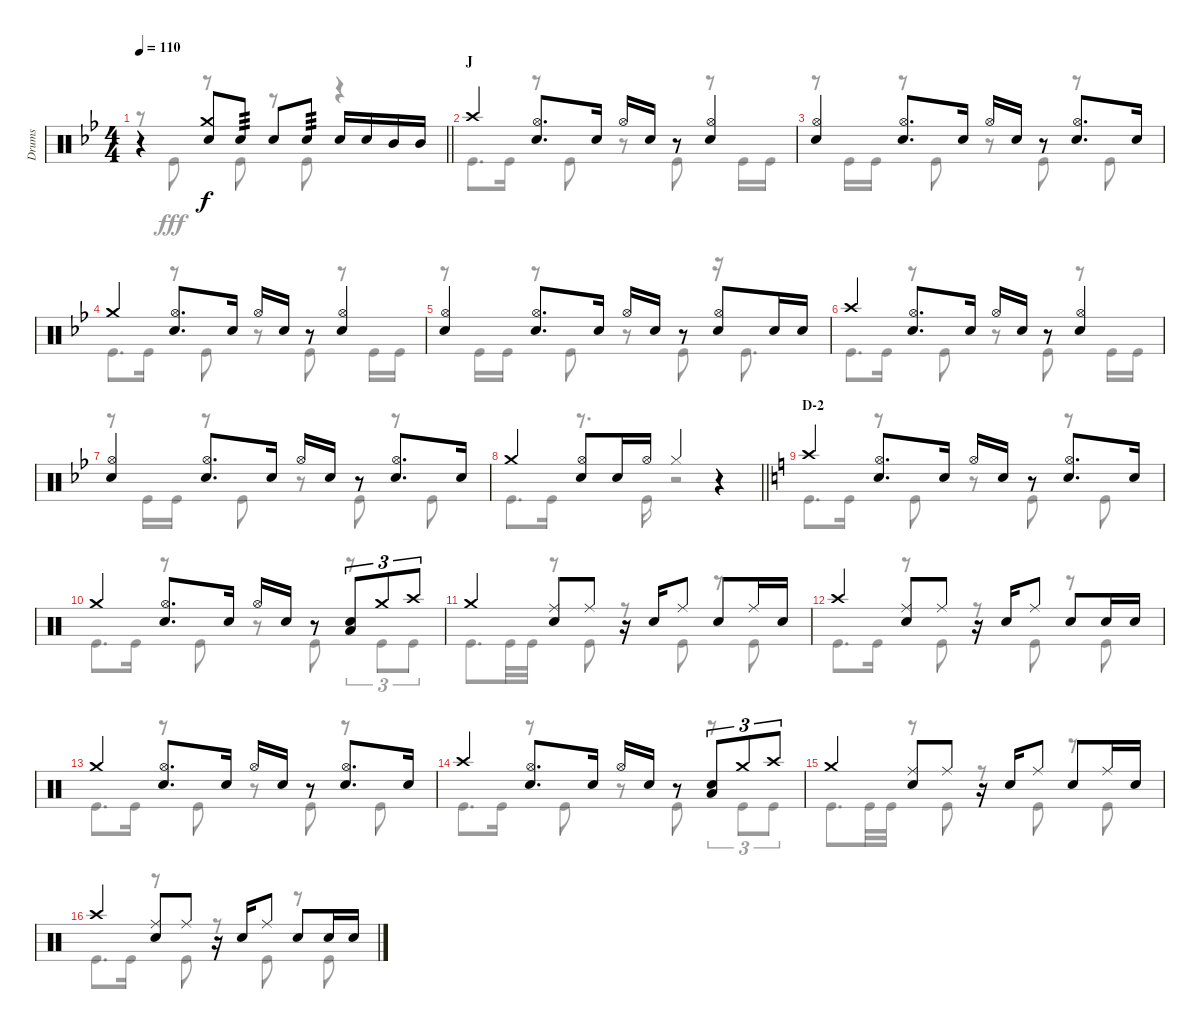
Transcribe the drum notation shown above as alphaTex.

\track ("Drums" "Drums") {instrument percussion}
\staff {score}
\articulation defaults
\voice
\ts (4 4)
\tempo 110
\clef neutral
\barLineRight lightlight
\ks bb
r.4{dy f} ("Crash medium (hit)" "Snare (hit) 2").8 "Snare (hit) 2".8{tp 3} "Snare (hit) 2".8 "Snare (hit) 2".8{tp 3} "Snare (hit) 2".16 "Snare (hit) 2".16 "Mid Tom (hit)".16 "Mid Tom (hit)".16 |
\section ("" "J")
"Crash high (hit)".4 ("Hi-Hat (open)" "Snare (hit) 2").8{d} "Snare (hit) 2".16 "Hi-Hat (open)".16 "Snare (hit) 2".16 r.8 ("Hi-Hat (open)" "Snare (hit) 2").4 |
("Hi-Hat (open)" "Snare (hit) 2").4 ("Hi-Hat (open)" "Snare (hit) 2").8{d} "Snare (hit) 2".16 "Hi-Hat (open)".16 "Snare (hit) 2".16 r.8 ("Hi-Hat (open)" "Snare (hit) 2").8{d} "Snare (hit) 2".16 |
"Crash medium (hit)".4 ("Hi-Hat (open)" "Snare (hit) 2").8{d} "Snare (hit) 2".16 "Hi-Hat (open)".16 "Snare (hit) 2".16 r.8 ("Hi-Hat (open)" "Snare (hit) 2").4 |
("Hi-Hat (open)" "Snare (hit) 2").4 ("Hi-Hat (open)" "Snare (hit) 2").8{d} "Snare (hit) 2".16 "Hi-Hat (open)".16 "Snare (hit) 2".16 r.8 ("Hi-Hat (open)" "Snare (hit) 2").8 "Snare (hit) 2".16 "Snare (hit) 2".16 |
"Crash high (hit)".4 ("Hi-Hat (open)" "Snare (hit) 2").8{d} "Snare (hit) 2".16 "Hi-Hat (open)".16 "Snare (hit) 2".16 r.8 ("Hi-Hat (open)" "Snare (hit) 2").4 |
("Hi-Hat (open)" "Snare (hit) 2").4 ("Hi-Hat (open)" "Snare (hit) 2").8{d} "Snare (hit) 2".16 "Hi-Hat (open)".16 "Snare (hit) 2".16 r.8 ("Hi-Hat (open)" "Snare (hit) 2").8{d} "Snare (hit) 2".16 |
\barLineRight lightlight "Crash medium (hit)".4
("Hi-Hat (open)" "Snare (hit) 2").8 "Snare (hit) 2".16 "Hi-Hat (open)".16 "Hi-Hat (closed)".4 r.4 |
\section ("" "D-2")
\ks c "Crash high (hit)".4
("Hi-Hat (open)" "Snare (hit) 2").8{d} "Snare (hit) 2".16 "Hi-Hat (open)".16 "Snare (hit) 2".16 r.8 ("Hi-Hat (open)" "Snare (hit) 2").8{d} "Snare (hit) 2".16 |
"Crash medium (hit)".4 ("Hi-Hat (open)" "Snare (hit) 2").8{d} "Snare (hit) 2".16 "Hi-Hat (open)".16 "Snare (hit) 2".16 r.8 ("Snare (hit) 2" "Low Tom (hit)").8{tu (3 2)} "Crash medium (hit)".8{tu (3 2)} "Crash high (hit)".8{tu (3 2)} |
"Crash medium (hit)".4 ("Ride (middle)" "Snare (hit) 2").8 "Ride (middle)".8 r.16 "Snare (hit) 2".16 "Ride (middle)".8 "Snare (hit) 2".8 "Ride (middle)".16 "Snare (hit) 2".16 |
"Crash high (hit)".4 ("Ride (middle)" "Snare (hit) 2").8 "Ride (middle)".8 r.16 "Snare (hit) 2".16 "Ride (middle)".8 "Snare (hit) 2".8 "Snare (hit) 2".16 "Snare (hit) 2".16 |
"Crash medium (hit)".4 ("Hi-Hat (open)" "Snare (hit) 2").8{d} "Snare (hit) 2".16 "Hi-Hat (open)".16 "Snare (hit) 2".16 r.8 ("Hi-Hat (open)" "Snare (hit) 2").8{d} "Snare (hit) 2".16 |
"Crash high (hit)".4 ("Hi-Hat (open)" "Snare (hit) 2").8{d} "Snare (hit) 2".16 "Hi-Hat (open)".16 "Snare (hit) 2".16 r.8 ("Snare (hit) 2" "Low Tom (hit)").8{tu (3 2)} "Crash medium (hit)".8{tu (3 2)} "Crash high (hit)".8{tu (3 2)} |
"Crash medium (hit)".4 ("Ride (middle)" "Snare (hit) 2").8 "Ride (middle)".8 r.16 "Snare (hit) 2".16 "Ride (middle)".8 "Snare (hit) 2".8 "Ride (middle)".16 "Snare (hit) 2".16 |
"Crash high (hit)".4 ("Ride (middle)" "Snare (hit) 2").8 "Ride (middle)".8 r.16 "Snare (hit) 2".16 "Ride (middle)".8 "Snare (hit) 2".8 "Snare (hit) 2".16 "Snare (hit) 2".16
\voice
\clef neutral
\ottava regular
\simile none
\barLineRight lightlight
\ks bb
r.8{dy fff} "Kick (hit)".8 r.8 "Kick (hit)".8 r.8 "Kick (hit)".8 r.4 |
"Kick (hit)".8{d} "Kick (hit)".16 r.8 "Kick (hit)".8 r.8 "Kick (hit)".8 r.8 "Kick (hit)".16 "Kick (hit)".16 |
r.8 "Kick (hit)".16 "Kick (hit)".16 r.8 "Kick (hit)".8 r.8 "Kick (hit)".8 r.8 "Kick (hit)".8 |
"Kick (hit)".8{d} "Kick (hit)".16 r.8 "Kick (hit)".8 r.8 "Kick (hit)".8 r.8 "Kick (hit)".16 "Kick (hit)".16 |
r.8 "Kick (hit)".16 "Kick (hit)".16 r.8 "Kick (hit)".8 r.8 "Kick (hit)".8 r.16 "Kick (hit)".8{d} |
"Kick (hit)".8{d} "Kick (hit)".16 r.8 "Kick (hit)".8 r.8 "Kick (hit)".8 r.8 "Kick (hit)".16 "Kick (hit)".16 |
r.8 "Kick (hit)".16 "Kick (hit)".16 r.8 "Kick (hit)".8 r.8 "Kick (hit)".8 r.8 "Kick (hit)".8 |
\barLineRight lightlight "Kick (hit)".8{d} "Kick (hit)".16
r.8{d} "Kick (hit)".16 r.2 |
\ks c "Kick (hit)".8{d} "Kick (hit)".16
r.8 "Kick (hit)".8 r.8 "Kick (hit)".8 r.8 "Kick (hit)".8 |
"Kick (hit)".8{d} "Kick (hit)".16 r.8 "Kick (hit)".8 r.8 "Kick (hit)".8 r.8{tu (3 2)} "Kick (hit)".8{tu (3 2)} "Kick (hit)".8{tu (3 2)} |
"Kick (hit)".8{d} "Kick (hit)".32 "Kick (hit)".32 r.8 "Kick (hit)".8 r.8 "Kick (hit)".8 r.8 "Kick (hit)".8 |
"Kick (hit)".8{d} "Kick (hit)".16 r.8 "Kick (hit)".8 r.8 "Kick (hit)".8 r.8 "Kick (hit)".8 |
"Kick (hit)".8{d} "Kick (hit)".16 r.8 "Kick (hit)".8 r.8 "Kick (hit)".8 r.8 "Kick (hit)".8 |
"Kick (hit)".8{d} "Kick (hit)".16 r.8 "Kick (hit)".8 r.8 "Kick (hit)".8 r.8{tu (3 2)} "Kick (hit)".8{tu (3 2)} "Kick (hit)".8{tu (3 2)} |
"Kick (hit)".8{d} "Kick (hit)".32 "Kick (hit)".32 r.8 "Kick (hit)".8 r.8 "Kick (hit)".8 r.8 "Kick (hit)".8 |
"Kick (hit)".8{d} "Kick (hit)".16 r.8 "Kick (hit)".8 r.8 "Kick (hit)".8 r.8 "Kick (hit)".8
